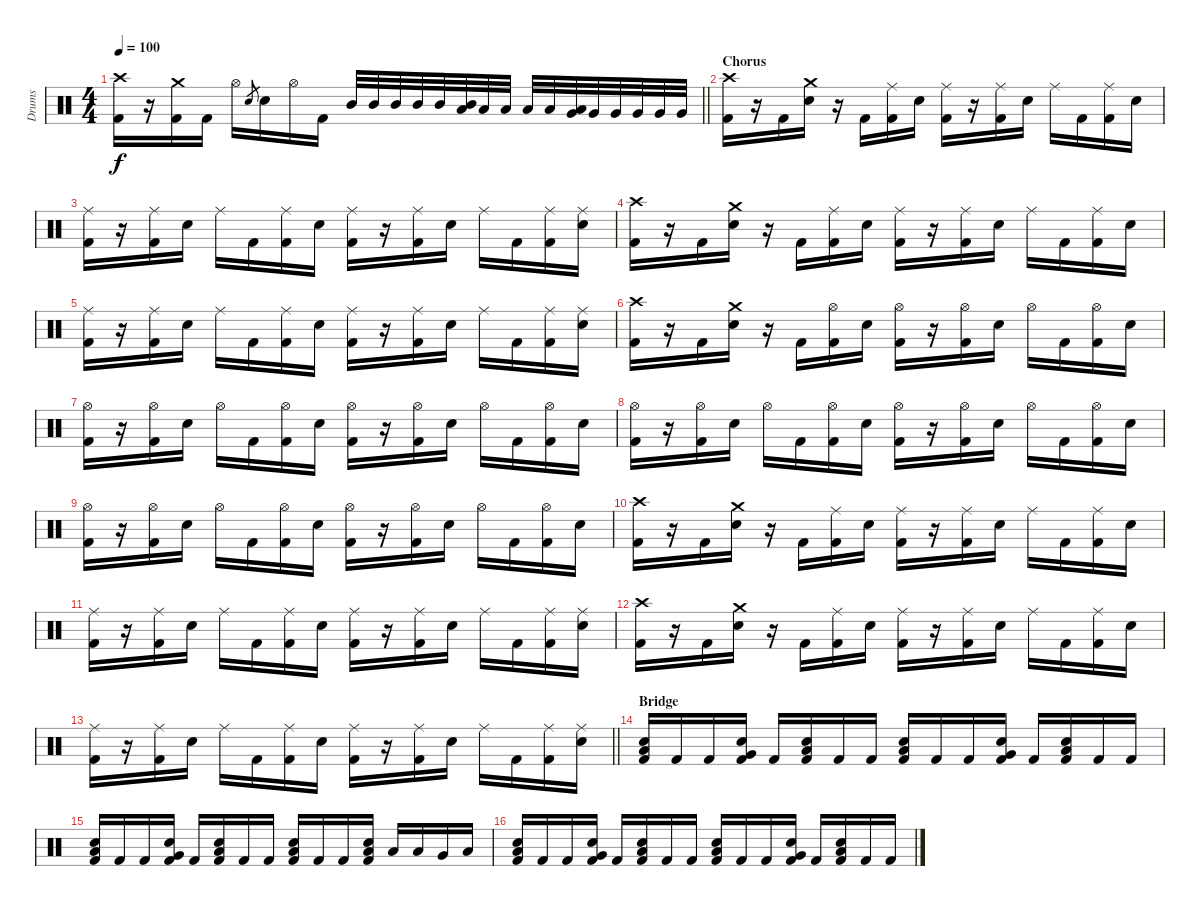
\track ("Drums" "Drums") {instrument percussion}
\staff {score}
\articulation defaults
\ts (4 4)
\tempo 100
\clef neutral
\barLineRight lightlight
\ks c
("Crash high (hit)" "Kick (hit) 2").16{dy f} r.16 ("Crash medium (hit)" "Kick (hit) 2").16 "Kick (hit) 2".16 "Hi-Hat (open)".16 "Electric Snare (hit)".8{gr} "Electric Snare (hit)".16 "Hi-Hat (open)".16 "Kick (hit) 2".16 "Mid Tom (hit)".32 "Mid Tom (hit)".32 "Mid Tom (hit)".32 "Mid Tom (hit)".32 "Mid Tom (hit)".32 ("Mid Tom (hit)" "Low Tom (hit)").32 "Low Tom (hit)".32 "Low Tom (hit)".32 "Low Tom (hit)".32 "Low Tom (hit)".32 ("Low Tom (hit)" "Very Low Tom (hit)").32 "Very Low Tom (hit)".32 "Very Low Tom (hit)".32 "Very Low Tom (hit)".32 "Very Low Tom (hit)".32 "Very Low Tom (hit)".32 |
\section ("" "Chorus")
("Crash high (hit)" "Kick (hit) 2").16 r.16 "Kick (hit) 2".16 ("Crash medium (hit)" "Electric Snare (hit)").16 r.16 "Kick (hit) 2".16 ("Ride (middle)" "Kick (hit) 2").16 "Electric Snare (hit)".16 ("Ride (middle)" "Kick (hit) 2").16 r.16 ("Ride (middle)" "Kick (hit) 2").16 "Electric Snare (hit)".16 "Ride (middle)".16 "Kick (hit) 2".16 ("Ride (middle)" "Kick (hit) 2").16 "Electric Snare (hit)".16 |
("Ride (middle)" "Kick (hit) 2").16 r.16 ("Ride (middle)" "Kick (hit) 2").16 "Electric Snare (hit)".16 "Ride (middle)".16 "Kick (hit) 2".16 ("Ride (middle)" "Kick (hit) 2").16 "Electric Snare (hit)".16 ("Ride (middle)" "Kick (hit) 2").16 r.16 ("Ride (middle)" "Kick (hit) 2").16 "Electric Snare (hit)".16 "Ride (middle)".16 "Kick (hit) 2".16 ("Ride (middle)" "Kick (hit) 2").16 ("Ride (middle)" "Electric Snare (hit)").16 |
("Crash high (hit)" "Kick (hit) 2").16 r.16 "Kick (hit) 2".16 ("Crash medium (hit)" "Electric Snare (hit)").16 r.16 "Kick (hit) 2".16 ("Ride (middle)" "Kick (hit) 2").16 "Electric Snare (hit)".16 ("Ride (middle)" "Kick (hit) 2").16 r.16 ("Ride (middle)" "Kick (hit) 2").16 "Electric Snare (hit)".16 "Ride (middle)".16 "Kick (hit) 2".16 ("Ride (middle)" "Kick (hit) 2").16 "Electric Snare (hit)".16 |
("Ride (middle)" "Kick (hit) 2").16 r.16 ("Ride (middle)" "Kick (hit) 2").16 "Electric Snare (hit)".16 "Ride (middle)".16 "Kick (hit) 2".16 ("Ride (middle)" "Kick (hit) 2").16 "Electric Snare (hit)".16 ("Ride (middle)" "Kick (hit) 2").16 r.16 ("Ride (middle)" "Kick (hit) 2").16 "Electric Snare (hit)".16 "Ride (middle)".16 "Kick (hit) 2".16 ("Ride (middle)" "Kick (hit) 2").16 ("Ride (middle)" "Electric Snare (hit)").16 |
("Crash high (hit)" "Kick (hit) 2").16 r.16 "Kick (hit) 2".16 ("Crash medium (hit)" "Electric Snare (hit)").16 r.16 "Kick (hit) 2".16 ("Hi-Hat (open)" "Kick (hit) 2").16 "Electric Snare (hit)".16 ("Hi-Hat (open)" "Kick (hit) 2").16 r.16 ("Hi-Hat (open)" "Kick (hit) 2").16 "Electric Snare (hit)".16 "Hi-Hat (open)".16 "Kick (hit) 2".16 ("Hi-Hat (open)" "Kick (hit) 2").16 "Electric Snare (hit)".16 |
("Hi-Hat (open)" "Kick (hit) 2").16 r.16 ("Hi-Hat (open)" "Kick (hit) 2").16 "Electric Snare (hit)".16 "Hi-Hat (open)".16 "Kick (hit) 2".16 ("Hi-Hat (open)" "Kick (hit) 2").16 "Electric Snare (hit)".16 ("Hi-Hat (open)" "Kick (hit) 2").16 r.16 ("Hi-Hat (open)" "Kick (hit) 2").16 "Electric Snare (hit)".16 "Hi-Hat (open)".16 "Kick (hit) 2".16 ("Hi-Hat (open)" "Kick (hit) 2").16 "Electric Snare (hit)".16 |
("Hi-Hat (open)" "Kick (hit) 2").16 r.16 ("Hi-Hat (open)" "Kick (hit) 2").16 "Electric Snare (hit)".16 "Hi-Hat (open)".16 "Kick (hit) 2".16 ("Hi-Hat (open)" "Kick (hit) 2").16 "Electric Snare (hit)".16 ("Hi-Hat (open)" "Kick (hit) 2").16 r.16 ("Hi-Hat (open)" "Kick (hit) 2").16 "Electric Snare (hit)".16 "Hi-Hat (open)".16 "Kick (hit) 2".16 ("Hi-Hat (open)" "Kick (hit) 2").16 "Electric Snare (hit)".16 |
("Hi-Hat (open)" "Kick (hit) 2").16 r.16 ("Hi-Hat (open)" "Kick (hit) 2").16 "Electric Snare (hit)".16 "Hi-Hat (open)".16 "Kick (hit) 2".16 ("Hi-Hat (open)" "Kick (hit) 2").16 "Electric Snare (hit)".16 ("Hi-Hat (open)" "Kick (hit) 2").16 r.16 ("Hi-Hat (open)" "Kick (hit) 2").16 "Electric Snare (hit)".16 "Hi-Hat (open)".16 "Kick (hit) 2".16 ("Hi-Hat (open)" "Kick (hit) 2").16 "Electric Snare (hit)".16 |
("Crash high (hit)" "Kick (hit) 2").16 r.16 "Kick (hit) 2".16 ("Crash medium (hit)" "Electric Snare (hit)").16 r.16 "Kick (hit) 2".16 ("Ride (middle)" "Kick (hit) 2").16 "Electric Snare (hit)".16 ("Ride (middle)" "Kick (hit) 2").16 r.16 ("Ride (middle)" "Kick (hit) 2").16 "Electric Snare (hit)".16 "Ride (middle)".16 "Kick (hit) 2".16 ("Ride (middle)" "Kick (hit) 2").16 "Electric Snare (hit)".16 |
("Ride (middle)" "Kick (hit) 2").16 r.16 ("Ride (middle)" "Kick (hit) 2").16 "Electric Snare (hit)".16 "Ride (middle)".16 "Kick (hit) 2".16 ("Ride (middle)" "Kick (hit) 2").16 "Electric Snare (hit)".16 ("Ride (middle)" "Kick (hit) 2").16 r.16 ("Ride (middle)" "Kick (hit) 2").16 "Electric Snare (hit)".16 "Ride (middle)".16 "Kick (hit) 2".16 ("Ride (middle)" "Kick (hit) 2").16 ("Ride (middle)" "Electric Snare (hit)").16 |
("Crash high (hit)" "Kick (hit) 2").16 r.16 "Kick (hit) 2".16 ("Crash medium (hit)" "Electric Snare (hit)").16 r.16 "Kick (hit) 2".16 ("Ride (middle)" "Kick (hit) 2").16 "Electric Snare (hit)".16 ("Ride (middle)" "Kick (hit) 2").16 r.16 ("Ride (middle)" "Kick (hit) 2").16 "Electric Snare (hit)".16 "Ride (middle)".16 "Kick (hit) 2".16 ("Ride (middle)" "Kick (hit) 2").16 "Electric Snare (hit)".16 |
\barLineRight lightlight
("Ride (middle)" "Kick (hit) 2").16 r.16 ("Ride (middle)" "Kick (hit) 2").16 "Electric Snare (hit)".16 "Ride (middle)".16 "Kick (hit) 2".16 ("Ride (middle)" "Kick (hit) 2").16 "Electric Snare (hit)".16 ("Ride (middle)" "Kick (hit) 2").16 r.16 ("Ride (middle)" "Kick (hit) 2").16 "Electric Snare (hit)".16 "Ride (middle)".16 "Kick (hit) 2".16 ("Ride (middle)" "Kick (hit) 2").16 ("Ride (middle)" "Electric Snare (hit)").16 |
\section ("" "Bridge")
("Low Floor Tom (hit)" "Electric Snare (hit)" "Kick (hit) 2").16 "Kick (hit) 2".16 "Kick (hit) 2".16 ("Very Low Tom (hit)" "Electric Snare (hit)" "Kick (hit) 2").16 "Kick (hit) 2".16 ("Low Floor Tom (hit)" "Electric Snare (hit)" "Kick (hit) 2").16 "Kick (hit) 2".16 "Kick (hit) 2".16 ("Low Tom (hit)" "Electric Snare (hit)" "Kick (hit) 2").16 "Kick (hit) 2".16 "Kick (hit) 2".16 ("Very Low Tom (hit)" "Electric Snare (hit)" "Kick (hit) 2").16 "Kick (hit) 2".16 ("Low Floor Tom (hit)" "Electric Snare (hit)" "Kick (hit) 2").16 "Kick (hit) 2".16 "Kick (hit) 2".16 |
("Low Floor Tom (hit)" "Electric Snare (hit)" "Kick (hit) 2").16 "Kick (hit) 2".16 "Kick (hit) 2".16 ("Very Low Tom (hit)" "Electric Snare (hit)" "Kick (hit) 2").16 "Kick (hit) 2".16 ("Low Floor Tom (hit)" "Electric Snare (hit)" "Kick (hit) 2").16 "Kick (hit) 2".16 "Kick (hit) 2".16 ("Low Tom (hit)" "Electric Snare (hit)" "Kick (hit) 2").16 "Kick (hit) 2".16 "Kick (hit) 2".16 ("Low Tom (hit)" "Electric Snare (hit)" "Kick (hit) 2").16 "Low Tom (hit)".16 "Low Tom (hit)".16 "Very Low Tom (hit)".16 "Low Floor Tom (hit)".16 |
("Low Floor Tom (hit)" "Electric Snare (hit)" "Kick (hit) 2").16 "Kick (hit) 2".16 "Kick (hit) 2".16 ("Very Low Tom (hit)" "Electric Snare (hit)" "Kick (hit) 2").16 "Kick (hit) 2".16 ("Low Floor Tom (hit)" "Electric Snare (hit)" "Kick (hit) 2").16 "Kick (hit) 2".16 "Kick (hit) 2".16 ("Low Tom (hit)" "Electric Snare (hit)" "Kick (hit) 2").16 "Kick (hit) 2".16 "Kick (hit) 2".16 ("Very Low Tom (hit)" "Electric Snare (hit)" "Kick (hit) 2").16 "Kick (hit) 2".16 ("Low Floor Tom (hit)" "Electric Snare (hit)" "Kick (hit) 2").16 "Kick (hit) 2".16 "Kick (hit) 2".16
